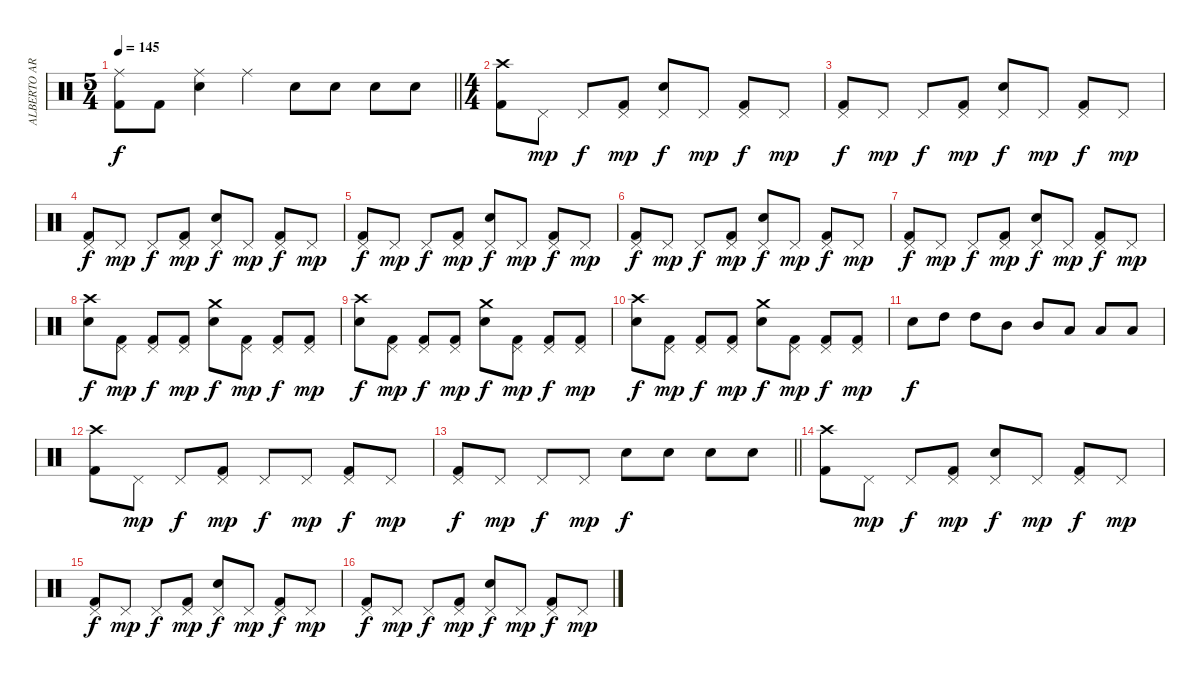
\track ("ALBERTO ARDINES" "ALBERTO AR") {instrument percussion}
\staff {score}
\articulation defaults
\ts (5 4)
\tempo 145
\clef neutral
\barLineRight lightlight
\ks c
("Ride (middle)" "Kick (hit) 2").8{dy f} "Kick (hit) 2".8 ("Ride (middle)" "Electric Snare (hit)").4 "Ride (middle)".4 "Electric Snare (hit)".8 "Electric Snare (hit)".8 "Electric Snare (hit)".8 "Electric Snare (hit)".8 |
\ts (4 4)
("Crash high (hit)" "Kick (hit) 2").8 "Pedal Hi-Hat (hit)".8{dy mp} "Pedal Hi-Hat (hit)".8{dy f} ("Pedal Hi-Hat (hit)" "Kick (hit) 2").8{dy mp} ("Pedal Hi-Hat (hit)" "Electric Snare (hit)").8{dy f} "Pedal Hi-Hat (hit)".8{dy mp} ("Pedal Hi-Hat (hit)" "Kick (hit) 2").8{dy f} "Pedal Hi-Hat (hit)".8{dy mp} |
("Pedal Hi-Hat (hit)" "Kick (hit) 2").8{dy f} "Pedal Hi-Hat (hit)".8{dy mp} "Pedal Hi-Hat (hit)".8{dy f} ("Pedal Hi-Hat (hit)" "Kick (hit) 2").8{dy mp} ("Pedal Hi-Hat (hit)" "Electric Snare (hit)").8{dy f} "Pedal Hi-Hat (hit)".8{dy mp} ("Pedal Hi-Hat (hit)" "Kick (hit) 2").8{dy f} "Pedal Hi-Hat (hit)".8{dy mp} |
("Pedal Hi-Hat (hit)" "Kick (hit) 2").8{dy f} "Pedal Hi-Hat (hit)".8{dy mp} "Pedal Hi-Hat (hit)".8{dy f} ("Pedal Hi-Hat (hit)" "Kick (hit) 2").8{dy mp} ("Pedal Hi-Hat (hit)" "Electric Snare (hit)").8{dy f} "Pedal Hi-Hat (hit)".8{dy mp} ("Pedal Hi-Hat (hit)" "Kick (hit) 2").8{dy f} "Pedal Hi-Hat (hit)".8{dy mp} |
("Pedal Hi-Hat (hit)" "Kick (hit) 2").8{dy f} "Pedal Hi-Hat (hit)".8{dy mp} "Pedal Hi-Hat (hit)".8{dy f} ("Pedal Hi-Hat (hit)" "Kick (hit) 2").8{dy mp} ("Pedal Hi-Hat (hit)" "Electric Snare (hit)").8{dy f} "Pedal Hi-Hat (hit)".8{dy mp} ("Pedal Hi-Hat (hit)" "Kick (hit) 2").8{dy f} "Pedal Hi-Hat (hit)".8{dy mp} |
("Pedal Hi-Hat (hit)" "Kick (hit) 2").8{dy f} "Pedal Hi-Hat (hit)".8{dy mp} "Pedal Hi-Hat (hit)".8{dy f} ("Pedal Hi-Hat (hit)" "Kick (hit) 2").8{dy mp} ("Pedal Hi-Hat (hit)" "Electric Snare (hit)").8{dy f} "Pedal Hi-Hat (hit)".8{dy mp} ("Pedal Hi-Hat (hit)" "Kick (hit) 2").8{dy f} "Pedal Hi-Hat (hit)".8{dy mp} |
("Pedal Hi-Hat (hit)" "Kick (hit) 2").8{dy f} "Pedal Hi-Hat (hit)".8{dy mp} "Pedal Hi-Hat (hit)".8{dy f} ("Pedal Hi-Hat (hit)" "Kick (hit) 2").8{dy mp} ("Pedal Hi-Hat (hit)" "Electric Snare (hit)").8{dy f} "Pedal Hi-Hat (hit)".8{dy mp} ("Pedal Hi-Hat (hit)" "Kick (hit) 2").8{dy f} "Pedal Hi-Hat (hit)".8{dy mp} |
("Crash high (hit)" "Electric Snare (hit)").8{dy f} ("Pedal Hi-Hat (hit)" "Kick (hit) 2").8{dy mp} ("Pedal Hi-Hat (hit)" "Kick (hit) 2").8{dy f} ("Pedal Hi-Hat (hit)" "Kick (hit) 2").8{dy mp} ("Crash medium (hit)" "Electric Snare (hit)").8{dy f} ("Pedal Hi-Hat (hit)" "Kick (hit) 2").8{dy mp} ("Pedal Hi-Hat (hit)" "Kick (hit) 2").8{dy f} ("Pedal Hi-Hat (hit)" "Kick (hit) 2").8{dy mp} |
("Crash high (hit)" "Electric Snare (hit)").8{dy f} ("Pedal Hi-Hat (hit)" "Kick (hit) 2").8{dy mp} ("Pedal Hi-Hat (hit)" "Kick (hit) 2").8{dy f} ("Pedal Hi-Hat (hit)" "Kick (hit) 2").8{dy mp} ("Crash medium (hit)" "Electric Snare (hit)").8{dy f} ("Pedal Hi-Hat (hit)" "Kick (hit) 2").8{dy mp} ("Pedal Hi-Hat (hit)" "Kick (hit) 2").8{dy f} ("Pedal Hi-Hat (hit)" "Kick (hit) 2").8{dy mp} |
("Crash high (hit)" "Electric Snare (hit)").8{dy f} ("Pedal Hi-Hat (hit)" "Kick (hit) 2").8{dy mp} ("Pedal Hi-Hat (hit)" "Kick (hit) 2").8{dy f} ("Pedal Hi-Hat (hit)" "Kick (hit) 2").8{dy mp} ("Crash medium (hit)" "Electric Snare (hit)").8{dy f} ("Pedal Hi-Hat (hit)" "Kick (hit) 2").8{dy mp} ("Pedal Hi-Hat (hit)" "Kick (hit) 2").8{dy f} ("Pedal Hi-Hat (hit)" "Kick (hit) 2").8{dy mp} |
"Electric Snare (hit)".8{dy f} "High Tom (hit)".8 "High Tom (hit)".8 "Mid Tom (hit)".8 "Mid Tom (hit)".8 "Low Tom (hit)".8 "Low Tom (hit)".8 "Low Tom (hit)".8 |
("Crash high (hit)" "Kick (hit) 2").8 "Pedal Hi-Hat (hit)".8{dy mp} "Pedal Hi-Hat (hit)".8{dy f} ("Pedal Hi-Hat (hit)" "Kick (hit) 2").8{dy mp} "Pedal Hi-Hat (hit)".8{dy f} "Pedal Hi-Hat (hit)".8{dy mp} ("Pedal Hi-Hat (hit)" "Kick (hit) 2").8{dy f} "Pedal Hi-Hat (hit)".8{dy mp} |
\barLineRight lightlight
("Pedal Hi-Hat (hit)" "Kick (hit) 2").8{dy f} "Pedal Hi-Hat (hit)".8{dy mp} "Pedal Hi-Hat (hit)".8{dy f} "Pedal Hi-Hat (hit)".8{dy mp} "Electric Snare (hit)".8{dy f} "Electric Snare (hit)".8 "Electric Snare (hit)".8 "Electric Snare (hit)".8 |
("Crash high (hit)" "Kick (hit) 2").8 "Pedal Hi-Hat (hit)".8{dy mp} "Pedal Hi-Hat (hit)".8{dy f} ("Pedal Hi-Hat (hit)" "Kick (hit) 2").8{dy mp} ("Pedal Hi-Hat (hit)" "Electric Snare (hit)").8{dy f} "Pedal Hi-Hat (hit)".8{dy mp} ("Pedal Hi-Hat (hit)" "Kick (hit) 2").8{dy f} "Pedal Hi-Hat (hit)".8{dy mp} |
("Pedal Hi-Hat (hit)" "Kick (hit) 2").8{dy f} "Pedal Hi-Hat (hit)".8{dy mp} "Pedal Hi-Hat (hit)".8{dy f} ("Pedal Hi-Hat (hit)" "Kick (hit) 2").8{dy mp} ("Pedal Hi-Hat (hit)" "Electric Snare (hit)").8{dy f} "Pedal Hi-Hat (hit)".8{dy mp} ("Pedal Hi-Hat (hit)" "Kick (hit) 2").8{dy f} "Pedal Hi-Hat (hit)".8{dy mp} |
("Pedal Hi-Hat (hit)" "Kick (hit) 2").8{dy f} "Pedal Hi-Hat (hit)".8{dy mp} "Pedal Hi-Hat (hit)".8{dy f} ("Pedal Hi-Hat (hit)" "Kick (hit) 2").8{dy mp} ("Pedal Hi-Hat (hit)" "Electric Snare (hit)").8{dy f} "Pedal Hi-Hat (hit)".8{dy mp} ("Pedal Hi-Hat (hit)" "Kick (hit) 2").8{dy f} "Pedal Hi-Hat (hit)".8{dy mp}
